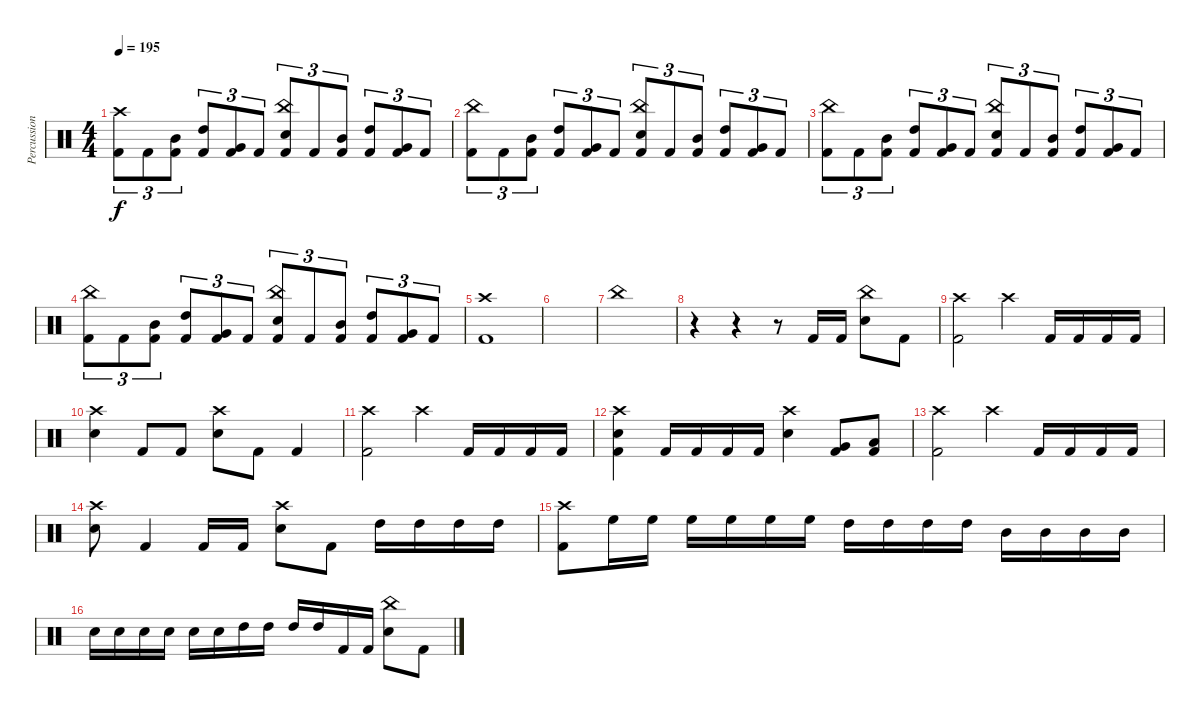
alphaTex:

\track ("Percussion" "Percussion") {instrument percussion}
\staff {score}
\articulation defaults
\ts (4 4)
\tempo 195
\clef neutral
\ks c
("Crash high (hit)" "Kick (hit) 2").8{tu (3 2) dy f} "Kick (hit) 2".8{tu (3 2)} ("Kick (hit) 2" "Mid Tom (hit)").8{tu (3 2)} ("Kick (hit) 2" "High Tom (hit)").8{tu (3 2)} ("Kick (hit) 2" "Very Low Tom (hit)").8{tu (3 2)} "Kick (hit) 2".8{tu (3 2)} ("China (hit)" "Snare (hit) 2" "Kick (hit) 2").8{tu (3 2)} "Kick (hit) 2".8{tu (3 2)} ("Kick (hit) 2" "Mid Tom (hit)").8{tu (3 2)} ("Kick (hit) 2" "High Tom (hit)").8{tu (3 2)} ("Kick (hit) 2" "Very Low Tom (hit)").8{tu (3 2)} "Kick (hit) 2".8{tu (3 2)} |
("China (hit)" "Kick (hit) 2").8{tu (3 2)} "Kick (hit) 2".8{tu (3 2)} ("Kick (hit) 2" "Mid Tom (hit)").8{tu (3 2)} ("Kick (hit) 2" "High Tom (hit)").8{tu (3 2)} ("Kick (hit) 2" "Very Low Tom (hit)").8{tu (3 2)} "Kick (hit) 2".8{tu (3 2)} ("China (hit)" "Snare (hit) 2" "Kick (hit) 2").8{tu (3 2)} "Kick (hit) 2".8{tu (3 2)} ("Kick (hit) 2" "Mid Tom (hit)").8{tu (3 2)} ("Kick (hit) 2" "High Tom (hit)").8{tu (3 2)} ("Kick (hit) 2" "Very Low Tom (hit)").8{tu (3 2)} "Kick (hit) 2".8{tu (3 2)} |
("China (hit)" "Kick (hit) 2").8{tu (3 2)} "Kick (hit) 2".8{tu (3 2)} ("Kick (hit) 2" "Mid Tom (hit)").8{tu (3 2)} ("Kick (hit) 2" "High Tom (hit)").8{tu (3 2)} ("Kick (hit) 2" "Very Low Tom (hit)").8{tu (3 2)} "Kick (hit) 2".8{tu (3 2)} ("China (hit)" "Snare (hit) 2" "Kick (hit) 2").8{tu (3 2)} "Kick (hit) 2".8{tu (3 2)} ("Kick (hit) 2" "Mid Tom (hit)").8{tu (3 2)} ("Kick (hit) 2" "High Tom (hit)").8{tu (3 2)} ("Kick (hit) 2" "Very Low Tom (hit)").8{tu (3 2)} "Kick (hit) 2".8{tu (3 2)} |
("China (hit)" "Kick (hit) 2").8{tu (3 2)} "Kick (hit) 2".8{tu (3 2)} ("Kick (hit) 2" "Mid Tom (hit)").8{tu (3 2)} ("Kick (hit) 2" "High Tom (hit)").8{tu (3 2)} ("Kick (hit) 2" "Very Low Tom (hit)").8{tu (3 2)} "Kick (hit) 2".8{tu (3 2)} ("China (hit)" "Snare (hit) 2" "Kick (hit) 2").8{tu (3 2)} "Kick (hit) 2".8{tu (3 2)} ("Kick (hit) 2" "Mid Tom (hit)").8{tu (3 2)} ("Kick (hit) 2" "High Tom (hit)").8{tu (3 2)} ("Kick (hit) 2" "Very Low Tom (hit)").8{tu (3 2)} "Kick (hit) 2".8{tu (3 2)} |
("Kick (hit) 2" "Crash high (hit)").1 |
|
"China (hit)".1 |
r.4 r.4 r.8 "Kick (hit) 2".16 "Kick (hit) 2".16 ("Snare (hit) 2" "China (hit)").8 "Kick (hit) 2".8 |
("Crash high (hit)" "Kick (hit) 2").2 "Crash high (hit)".4 "Kick (hit) 2".16 "Kick (hit) 2".16 "Kick (hit) 2".16 "Kick (hit) 2".16 |
("Crash high (hit)" "Snare (hit) 2").4 "Kick (hit) 2".8 "Kick (hit) 2".8 ("Snare (hit) 2" "Crash high (hit)").8 "Kick (hit) 2".8 "Kick (hit) 2".4 |
("Crash high (hit)" "Kick (hit) 2").2 "Crash high (hit)".4 "Kick (hit) 2".16 "Kick (hit) 2".16 "Kick (hit) 2".16 "Kick (hit) 2".16 |
("Crash high (hit)" "Kick (hit) 2" "Snare (hit) 2").4 "Kick (hit) 2".16 "Kick (hit) 2".16 "Kick (hit) 2".16 "Kick (hit) 2".16 ("Crash high (hit)" "Snare (hit) 2").4 ("Very Low Tom (hit)" "Kick (hit) 2").8 ("Low Floor Tom (hit)" "Kick (hit) 2").8 |
("Crash high (hit)" "Kick (hit) 2").2 "Crash high (hit)".4 "Kick (hit) 2".16 "Kick (hit) 2".16 "Kick (hit) 2".16 "Kick (hit) 2".16 |
("Snare (hit) 2" "Crash high (hit)").8 "Kick (hit) 2".4 "Kick (hit) 2".16 "Kick (hit) 2".16 ("Crash high (hit)" "Snare (hit) 2").8 "Kick (hit) 2".8 "High Tom (hit)".16 "High Tom (hit)".16 "High Tom (hit)".16 "High Tom (hit)".16 |
("Crash high (hit)" "Kick (hit) 2").8 "High Floor Tom (hit)".16 "High Floor Tom (hit)".16 "High Floor Tom (hit)".16 "High Floor Tom (hit)".16 "High Floor Tom (hit)".16 "High Floor Tom (hit)".16 "High Tom (hit)".16 "High Tom (hit)".16 "High Tom (hit)".16 "High Tom (hit)".16 "Mid Tom (hit)".16 "Mid Tom (hit)".16 "Mid Tom (hit)".16 "Mid Tom (hit)".16 |
"Snare (hit) 2".16 "Snare (hit) 2".16 "Snare (hit) 2".16 "Snare (hit) 2".16 "Snare (hit) 2".16 "Snare (hit) 2".16 "High Tom (hit)".16 "High Tom (hit)".16 "High Tom (hit)".16 "High Tom (hit)".16 "Kick (hit) 2".16 "Kick (hit) 2".16 ("Snare (hit) 2" "China (hit)").8 "Kick (hit) 2".8
